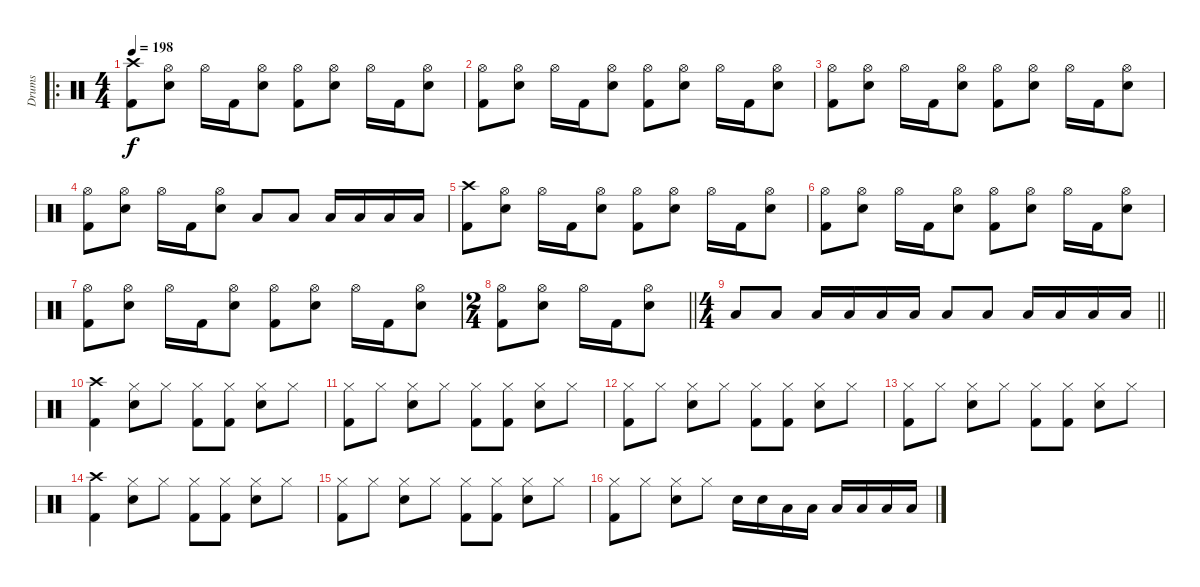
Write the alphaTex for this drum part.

\track ("Drums" "Drums") {instrument percussion}
\staff {score}
\articulation defaults
\ro
\ts (4 4)
\tempo 198
\clef neutral
\ks c
("Crash high (hit)" "Kick (hit) 2").8{dy f} ("Hi-Hat (open)" "Snare (hit) 2").8 "Hi-Hat (open)".16 "Kick (hit) 2".16 ("Hi-Hat (open)" "Snare (hit) 2").8 ("Hi-Hat (open)" "Kick (hit) 2").8 ("Hi-Hat (open)" "Snare (hit) 2").8 "Hi-Hat (open)".16 "Kick (hit) 2".16 ("Hi-Hat (open)" "Snare (hit) 2").8 |
("Hi-Hat (open)" "Kick (hit) 2").8 ("Hi-Hat (open)" "Snare (hit) 2").8 "Hi-Hat (open)".16 "Kick (hit) 2".16 ("Hi-Hat (open)" "Snare (hit) 2").8 ("Hi-Hat (open)" "Kick (hit) 2").8 ("Hi-Hat (open)" "Snare (hit) 2").8 "Hi-Hat (open)".16 "Kick (hit) 2".16 ("Hi-Hat (open)" "Snare (hit) 2").8 |
("Hi-Hat (open)" "Kick (hit) 2").8 ("Hi-Hat (open)" "Snare (hit) 2").8 "Hi-Hat (open)".16 "Kick (hit) 2".16 ("Hi-Hat (open)" "Snare (hit) 2").8 ("Hi-Hat (open)" "Kick (hit) 2").8 ("Hi-Hat (open)" "Snare (hit) 2").8 "Hi-Hat (open)".16 "Kick (hit) 2".16 ("Hi-Hat (open)" "Snare (hit) 2").8 |
("Hi-Hat (open)" "Kick (hit) 2").8 ("Hi-Hat (open)" "Snare (hit) 2").8 "Hi-Hat (open)".16 "Kick (hit) 2".16 ("Hi-Hat (open)" "Snare (hit) 2").8 "Low Floor Tom (hit)".8 "Low Floor Tom (hit)".8 "Low Floor Tom (hit)".16 "Low Floor Tom (hit)".16 "Low Floor Tom (hit)".16 "Low Floor Tom (hit)".16 |
("Crash high (hit)" "Kick (hit) 2").8 ("Hi-Hat (open)" "Snare (hit) 2").8 "Hi-Hat (open)".16 "Kick (hit) 2".16 ("Hi-Hat (open)" "Snare (hit) 2").8 ("Hi-Hat (open)" "Kick (hit) 2").8 ("Hi-Hat (open)" "Snare (hit) 2").8 "Hi-Hat (open)".16 "Kick (hit) 2".16 ("Hi-Hat (open)" "Snare (hit) 2").8 |
("Hi-Hat (open)" "Kick (hit) 2").8 ("Hi-Hat (open)" "Snare (hit) 2").8 "Hi-Hat (open)".16 "Kick (hit) 2".16 ("Hi-Hat (open)" "Snare (hit) 2").8 ("Hi-Hat (open)" "Kick (hit) 2").8 ("Hi-Hat (open)" "Snare (hit) 2").8 "Hi-Hat (open)".16 "Kick (hit) 2".16 ("Hi-Hat (open)" "Snare (hit) 2").8 |
("Hi-Hat (open)" "Kick (hit) 2").8 ("Hi-Hat (open)" "Snare (hit) 2").8 "Hi-Hat (open)".16 "Kick (hit) 2".16 ("Hi-Hat (open)" "Snare (hit) 2").8 ("Hi-Hat (open)" "Kick (hit) 2").8 ("Hi-Hat (open)" "Snare (hit) 2").8 "Hi-Hat (open)".16 "Kick (hit) 2".16 ("Hi-Hat (open)" "Snare (hit) 2").8 |
\ts (2 4)
\barLineRight lightlight
("Hi-Hat (open)" "Kick (hit) 2").8 ("Hi-Hat (open)" "Snare (hit) 2").8 "Hi-Hat (open)".16 "Kick (hit) 2".16 ("Hi-Hat (open)" "Snare (hit) 2").8 |
\ts (4 4)
\barLineRight lightlight "Low Floor Tom (hit)".8 "Low Floor Tom (hit)".8 "Low Floor Tom (hit)".16 "Low Floor Tom (hit)".16 "Low Floor Tom (hit)".16 "Low Floor Tom (hit)".16 "Low Floor Tom (hit)".8 "Low Floor Tom (hit)".8 "Low Floor Tom (hit)".16 "Low Floor Tom (hit)".16 "Low Floor Tom (hit)".16 "Low Floor Tom (hit)".16
|
("Crash high (hit)" "Kick (hit) 2").4 ("Hi-Hat (closed)" "Snare (hit) 2").8 "Hi-Hat (closed)".8 ("Hi-Hat (closed)" "Kick (hit) 2").8 ("Hi-Hat (closed)" "Kick (hit) 2").8 ("Hi-Hat (closed)" "Snare (hit) 2").8 "Hi-Hat (closed)".8 |
("Hi-Hat (closed)" "Kick (hit) 2").8 "Hi-Hat (closed)".8 ("Hi-Hat (closed)" "Snare (hit) 2").8 "Hi-Hat (closed)".8 ("Hi-Hat (closed)" "Kick (hit) 2").8 ("Hi-Hat (closed)" "Kick (hit) 2").8 ("Hi-Hat (closed)" "Snare (hit) 2").8 "Hi-Hat (closed)".8 |
("Hi-Hat (closed)" "Kick (hit) 2").8 "Hi-Hat (closed)".8 ("Hi-Hat (closed)" "Snare (hit) 2").8 "Hi-Hat (closed)".8 ("Hi-Hat (closed)" "Kick (hit) 2").8 ("Hi-Hat (closed)" "Kick (hit) 2").8 ("Hi-Hat (closed)" "Snare (hit) 2").8 "Hi-Hat (closed)".8 |
("Hi-Hat (closed)" "Kick (hit) 2").8 "Hi-Hat (closed)".8 ("Hi-Hat (closed)" "Snare (hit) 2").8 "Hi-Hat (closed)".8 ("Hi-Hat (closed)" "Kick (hit) 2").8 ("Hi-Hat (closed)" "Kick (hit) 2").8 ("Hi-Hat (closed)" "Snare (hit) 2").8 "Hi-Hat (closed)".8 |
("Crash high (hit)" "Kick (hit) 2").4 ("Hi-Hat (closed)" "Snare (hit) 2").8 "Hi-Hat (closed)".8 ("Hi-Hat (closed)" "Kick (hit) 2").8 ("Hi-Hat (closed)" "Kick (hit) 2").8 ("Hi-Hat (closed)" "Snare (hit) 2").8 "Hi-Hat (closed)".8 |
("Hi-Hat (closed)" "Kick (hit) 2").8 "Hi-Hat (closed)".8 ("Hi-Hat (closed)" "Snare (hit) 2").8 "Hi-Hat (closed)".8 ("Hi-Hat (closed)" "Kick (hit) 2").8 ("Hi-Hat (closed)" "Kick (hit) 2").8 ("Hi-Hat (closed)" "Snare (hit) 2").8 "Hi-Hat (closed)".8 |
("Hi-Hat (closed)" "Kick (hit) 2").8 "Hi-Hat (closed)".8 ("Hi-Hat (closed)" "Snare (hit) 2").8 "Hi-Hat (closed)".8 "Snare (hit) 2".16 "Snare (hit) 2".16 "Low Tom (hit)".16 "Low Tom (hit)".16 "Low Tom (hit)".16 "Low Tom (hit)".16 "Low Floor Tom (hit)".16 "Low Floor Tom (hit)".16
